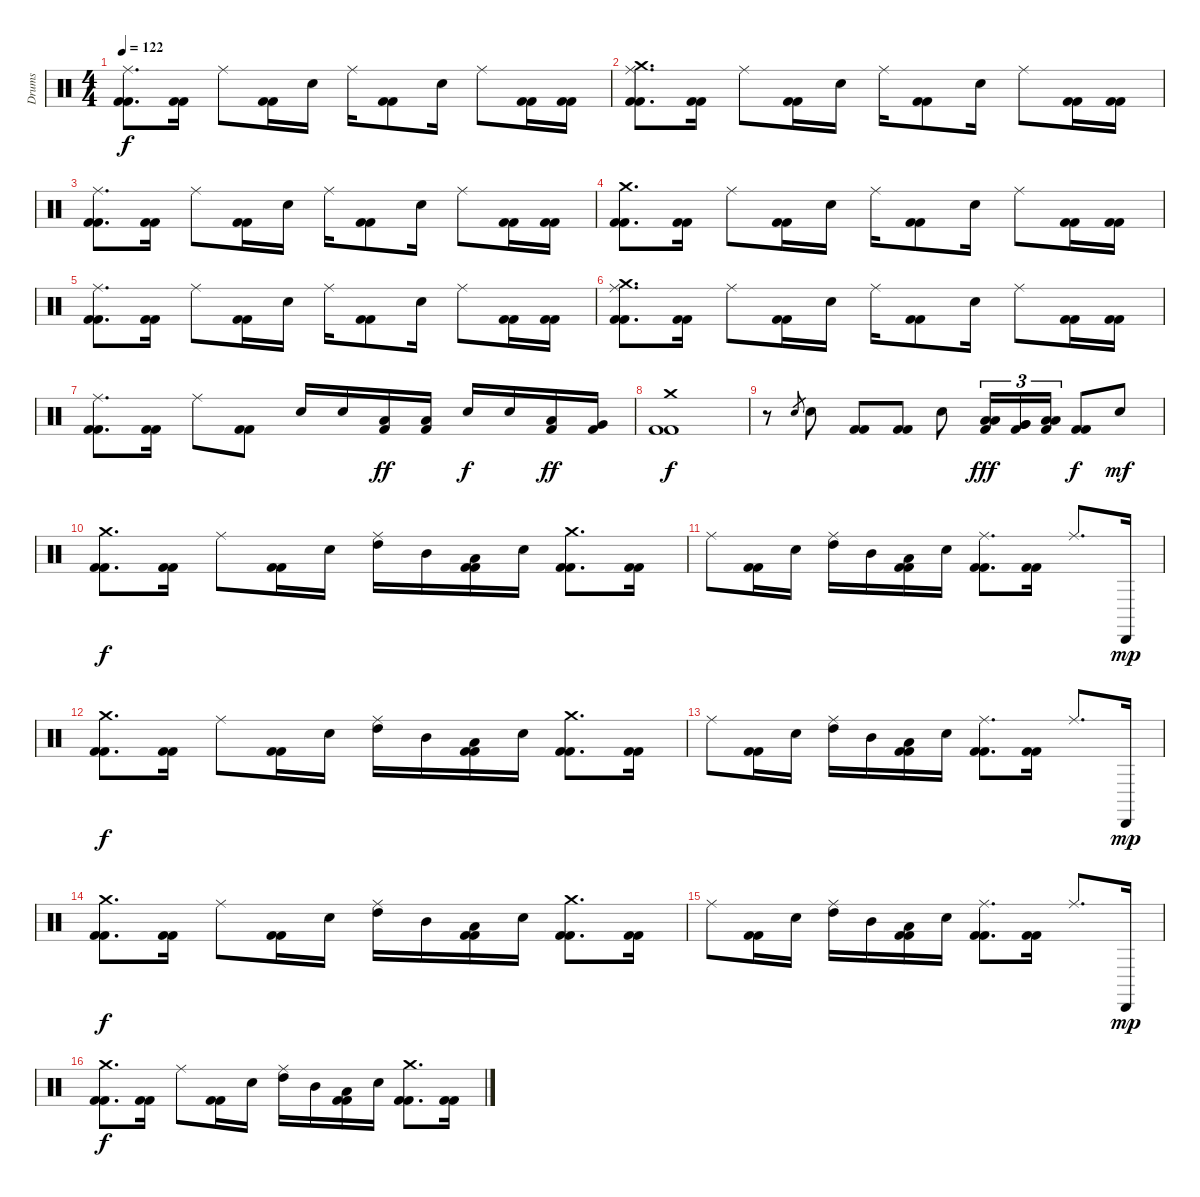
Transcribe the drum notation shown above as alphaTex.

\track ("Drums" "Drums") {instrument percussion}
\staff {score}
\articulation defaults
\ts (4 4)
\tempo 122
\clef neutral
\ks c
("Ride (middle)" "Kick (hit) 2" "Kick (hit) 2").8{d dy f} ("Kick (hit) 2" "Kick (hit) 2").16 "Ride (middle)".8 ("Kick (hit) 2" "Kick (hit) 2").16 "Electric Snare (hit)".16 "Ride (middle)".16 ("Kick (hit) 2" "Kick (hit) 2").8 "Electric Snare (hit)".16 "Ride (middle)".8 ("Kick (hit) 2" "Kick (hit) 2").16 ("Kick (hit) 2" "Kick (hit) 2").16 |
("Crash medium (hit)" "Ride (middle)" "Kick (hit) 2" "Kick (hit) 2").8{d} ("Kick (hit) 2" "Kick (hit) 2").16 "Ride (middle)".8 ("Kick (hit) 2" "Kick (hit) 2").16 "Electric Snare (hit)".16 "Ride (middle)".16 ("Kick (hit) 2" "Kick (hit) 2").8 "Electric Snare (hit)".16 "Ride (middle)".8 ("Kick (hit) 2" "Kick (hit) 2").16 ("Kick (hit) 2" "Kick (hit) 2").16 |
("Ride (middle)" "Kick (hit) 2" "Kick (hit) 2").8{d} ("Kick (hit) 2" "Kick (hit) 2").16 "Ride (middle)".8 ("Kick (hit) 2" "Kick (hit) 2").16 "Electric Snare (hit)".16 "Ride (middle)".16 ("Kick (hit) 2" "Kick (hit) 2").8 "Electric Snare (hit)".16 "Ride (middle)".8 ("Kick (hit) 2" "Kick (hit) 2").16 ("Kick (hit) 2" "Kick (hit) 2").16 |
("Crash medium (hit)" "Kick (hit) 2" "Kick (hit) 2").8{d} ("Kick (hit) 2" "Kick (hit) 2").16 "Ride (middle)".8 ("Kick (hit) 2" "Kick (hit) 2").16 "Electric Snare (hit)".16 "Ride (middle)".16 ("Kick (hit) 2" "Kick (hit) 2").8 "Electric Snare (hit)".16 "Ride (middle)".8 ("Kick (hit) 2" "Kick (hit) 2").16 ("Kick (hit) 2" "Kick (hit) 2").16 |
("Ride (middle)" "Kick (hit) 2" "Kick (hit) 2").8{d} ("Kick (hit) 2" "Kick (hit) 2").16 "Ride (middle)".8 ("Kick (hit) 2" "Kick (hit) 2").16 "Electric Snare (hit)".16 "Ride (middle)".16 ("Kick (hit) 2" "Kick (hit) 2").8 "Electric Snare (hit)".16 "Ride (middle)".8 ("Kick (hit) 2" "Kick (hit) 2").16 ("Kick (hit) 2" "Kick (hit) 2").16 |
("Crash medium (hit)" "Ride (middle)" "Kick (hit) 2" "Kick (hit) 2").8{d} ("Kick (hit) 2" "Kick (hit) 2").16 "Ride (middle)".8 ("Kick (hit) 2" "Kick (hit) 2").16 "Electric Snare (hit)".16 "Ride (middle)".16 ("Kick (hit) 2" "Kick (hit) 2").8 "Electric Snare (hit)".16 "Ride (middle)".8 ("Kick (hit) 2" "Kick (hit) 2").16 ("Kick (hit) 2" "Kick (hit) 2").16 |
("Ride (middle)" "Kick (hit) 2" "Kick (hit) 2").8{d} ("Kick (hit) 2" "Kick (hit) 2").16 "Ride (middle)".8 ("Kick (hit) 2" "Kick (hit) 2").8 "Electric Snare (hit)".16 "Electric Snare (hit)".16 ("Low Tom (hit)" "Kick (hit) 2").16{dy ff} ("Low Tom (hit)" "Kick (hit) 2").16 "Electric Snare (hit)".16{dy f} "Electric Snare (hit)".16 ("Low Tom (hit)" "Kick (hit) 2").16{dy ff} ("Very Low Tom (hit)" "Kick (hit) 2").16 |
("Crash medium (hit)" "Kick (hit) 2" "Kick (hit) 2").1{dy f} |
r.8 "Electric Snare (hit)".8{gr} "Electric Snare (hit)".8 ("Kick (hit) 2" "Kick (hit) 2").8 ("Kick (hit) 2" "Kick (hit) 2").8 "Electric Snare (hit)".8 ("Low Tom (hit)" "Low Tom (hit)" "Kick (hit) 2").16{tu (3 2) dy fff} ("Very Low Tom (hit)" "Very Low Tom (hit)" "Kick (hit) 2").16{tu (3 2)} ("Low Floor Tom (hit)" "Low Floor Tom (hit)" "Kick (hit) 2").16{tu (3 2)} ("Kick (hit) 2" "Kick (hit) 2").8{dy f} "Electric Snare (hit)".8{dy mf} |
("Crash medium (hit)" "Kick (hit) 2" "Kick (hit) 2").8{d dy f} ("Kick (hit) 2" "Kick (hit) 2").16 "Ride (middle)".8 ("Kick (hit) 2" "Kick (hit) 2").16 "Electric Snare (hit)".16 ("Ride (middle)" "High Tom (hit)").16 "Mid Tom (hit)".16 ("Low Tom (hit)" "Kick (hit) 2" "Kick (hit) 2").16 "Electric Snare (hit)".16 ("Crash medium (hit)" "Kick (hit) 2" "Kick (hit) 2").8{d} ("Kick (hit) 2" "Kick (hit) 2").16 |
"Ride (middle)".8 ("Kick (hit) 2" "Kick (hit) 2").16 "Electric Snare (hit)".16 ("Ride (middle)" "High Tom (hit)").16 "Mid Tom (hit)".16 ("Low Tom (hit)" "Kick (hit) 2" "Kick (hit) 2").16 "Electric Snare (hit)".16 ("Ride (middle)" "Kick (hit) 2" "Kick (hit) 2").8{d} ("Kick (hit) 2" "Kick (hit) 2").16 "Ride (middle)".8{d} "Cabasa (hit)".16{dy mp} |
("Crash medium (hit)" "Kick (hit) 2" "Kick (hit) 2").8{d dy f} ("Kick (hit) 2" "Kick (hit) 2").16 "Ride (middle)".8 ("Kick (hit) 2" "Kick (hit) 2").16 "Electric Snare (hit)".16 ("Ride (middle)" "High Tom (hit)").16 "Mid Tom (hit)".16 ("Low Tom (hit)" "Kick (hit) 2" "Kick (hit) 2").16 "Electric Snare (hit)".16 ("Crash medium (hit)" "Kick (hit) 2" "Kick (hit) 2").8{d} ("Kick (hit) 2" "Kick (hit) 2").16 |
"Ride (middle)".8 ("Kick (hit) 2" "Kick (hit) 2").16 "Electric Snare (hit)".16 ("Ride (middle)" "High Tom (hit)").16 "Mid Tom (hit)".16 ("Low Tom (hit)" "Kick (hit) 2" "Kick (hit) 2").16 "Electric Snare (hit)".16 ("Ride (middle)" "Kick (hit) 2" "Kick (hit) 2").8{d} ("Kick (hit) 2" "Kick (hit) 2").16 "Ride (middle)".8{d} "Cabasa (hit)".16{dy mp} |
("Crash medium (hit)" "Kick (hit) 2" "Kick (hit) 2").8{d dy f} ("Kick (hit) 2" "Kick (hit) 2").16 "Ride (middle)".8 ("Kick (hit) 2" "Kick (hit) 2").16 "Electric Snare (hit)".16 ("Ride (middle)" "High Tom (hit)").16 "Mid Tom (hit)".16 ("Low Tom (hit)" "Kick (hit) 2" "Kick (hit) 2").16 "Electric Snare (hit)".16 ("Crash medium (hit)" "Kick (hit) 2" "Kick (hit) 2").8{d} ("Kick (hit) 2" "Kick (hit) 2").16 |
"Ride (middle)".8 ("Kick (hit) 2" "Kick (hit) 2").16 "Electric Snare (hit)".16 ("Ride (middle)" "High Tom (hit)").16 "Mid Tom (hit)".16 ("Low Tom (hit)" "Kick (hit) 2" "Kick (hit) 2").16 "Electric Snare (hit)".16 ("Ride (middle)" "Kick (hit) 2" "Kick (hit) 2").8{d} ("Kick (hit) 2" "Kick (hit) 2").16 "Ride (middle)".8{d} "Cabasa (hit)".16{dy mp} |
("Crash medium (hit)" "Kick (hit) 2" "Kick (hit) 2").8{d dy f} ("Kick (hit) 2" "Kick (hit) 2").16 "Ride (middle)".8 ("Kick (hit) 2" "Kick (hit) 2").16 "Electric Snare (hit)".16 ("Ride (middle)" "High Tom (hit)").16 "Mid Tom (hit)".16 ("Low Tom (hit)" "Kick (hit) 2" "Kick (hit) 2").16 "Electric Snare (hit)".16 ("Crash medium (hit)" "Kick (hit) 2" "Kick (hit) 2").8{d} ("Kick (hit) 2" "Kick (hit) 2").16
